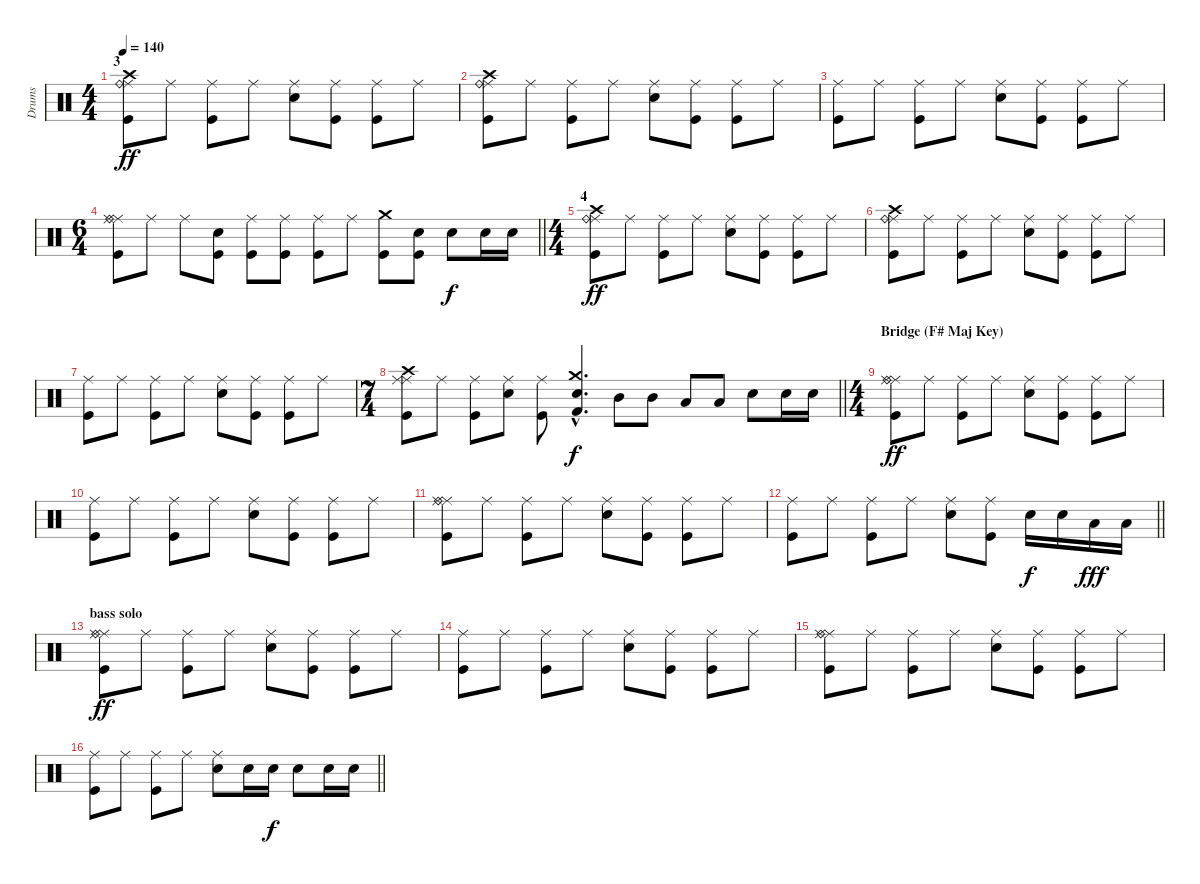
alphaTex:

\track ("Drums" "Drums") {instrument percussion}
\staff {score}
\articulation defaults
\ts (4 4)
\section ("" "3")
\tempo 140
\clef neutral
\ks c
("Kick (hit)" "Crash high (hit)" "Ride (middle)" "Ride (bell)").8{dy ff} "Ride (middle)".8 ("Kick (hit)" "Ride (middle)").8 "Ride (middle)".8 ("Snare (hit) 2" "Ride (middle)").8 ("Kick (hit)" "Ride (middle)").8 ("Kick (hit)" "Ride (middle)").8 "Ride (middle)".8 |
("Kick (hit)" "Crash high (hit)" "Ride (middle)" "Ride (bell)").8 "Ride (middle)".8 ("Kick (hit)" "Ride (middle)").8 "Ride (middle)".8 ("Snare (hit) 2" "Ride (middle)").8 ("Kick (hit)" "Ride (middle)").8 ("Kick (hit)" "Ride (middle)").8 "Ride (middle)".8 |
("Kick (hit)" "Ride (middle)").8 "Ride (middle)".8 ("Kick (hit)" "Ride (middle)").8 "Ride (middle)".8 ("Snare (hit) 2" "Ride (middle)").8 ("Kick (hit)" "Ride (middle)").8 ("Kick (hit)" "Ride (middle)").8 "Ride (middle)".8 |
\ts (6 4)
\barLineRight lightlight
("Kick (hit)" "Ride (middle)" "Ride (middle)" "Ride (bell)").8 "Ride (middle)".8 "Ride (middle)".8 ("Kick (hit)" "Snare (hit) 2").8 ("Kick (hit)" "Ride (middle)").8 ("Kick (hit)" "Ride (middle)").8 ("Kick (hit)" "Ride (middle)").8 "Ride (middle)".8 ("Kick (hit)" "Crash medium (hit)").8 ("Kick (hit)" "Snare (hit) 2").8 "Snare (hit) 2".8{dy f} "Snare (hit) 2".16 "Snare (hit) 2".16 |
\ts (4 4)
\section ("" "4")
("Kick (hit)" "Crash high (hit)" "Ride (middle)" "Ride (bell)").8{dy ff} "Ride (middle)".8 ("Kick (hit)" "Ride (middle)").8 "Ride (middle)".8 ("Snare (hit) 2" "Ride (middle)").8 ("Kick (hit)" "Ride (middle)").8 ("Kick (hit)" "Ride (middle)").8 "Ride (middle)".8 |
("Kick (hit)" "Crash high (hit)" "Ride (middle)" "Ride (bell)").8 "Ride (middle)".8 ("Kick (hit)" "Ride (middle)").8 "Ride (middle)".8 ("Snare (hit) 2" "Ride (middle)").8 ("Kick (hit)" "Ride (middle)").8 ("Kick (hit)" "Ride (middle)").8 "Ride (middle)".8 |
("Kick (hit)" "Ride (middle)").8 "Ride (middle)".8 ("Kick (hit)" "Ride (middle)").8 "Ride (middle)".8 ("Snare (hit) 2" "Ride (middle)").8 ("Kick (hit)" "Ride (middle)").8 ("Kick (hit)" "Ride (middle)").8 "Ride (middle)".8 |
\ts (7 4)
\barLineRight lightlight
("Kick (hit)" "Ride (middle)" "Ride (middle)" "Crash high (hit)").8 "Ride (middle)".8 ("Ride (middle)" "Kick (hit)").8 ("Ride (middle)" "Snare (hit) 2").8 ("Kick (hit)" "Ride (middle)").8 ("Crash medium (hit)"{hac} "Snare (hit) 2"{hac} "Kick (hit) 2"{hac}).4{d dy f} "Mid Tom (hit)".8 "Mid Tom (hit)".8 "Low Tom (hit)".8 "Low Tom (hit)".8 "Snare (hit) 2".8 "Snare (hit) 2".16 "Snare (hit) 2".16 |
\ts (4 4)
\section ("" "Bridge (F# Maj Key)")
("Kick (hit)" "Ride (middle)" "Ride (middle)" "Ride (bell)").8{dy ff} "Ride (middle)".8 ("Kick (hit)" "Ride (middle)").8 "Ride (middle)".8 ("Snare (hit) 2" "Ride (middle)").8 ("Kick (hit)" "Ride (middle)").8 ("Kick (hit)" "Ride (middle)").8 "Ride (middle)".8 |
("Kick (hit)" "Ride (middle)").8 "Ride (middle)".8 ("Kick (hit)" "Ride (middle)").8 "Ride (middle)".8 ("Snare (hit) 2" "Ride (middle)").8 ("Kick (hit)" "Ride (middle)").8 ("Kick (hit)" "Ride (middle)").8 "Ride (middle)".8 |
("Kick (hit)" "Ride (middle)" "Ride (middle)" "Ride (bell)").8 "Ride (middle)".8 ("Kick (hit)" "Ride (middle)").8 "Ride (middle)".8 ("Snare (hit) 2" "Ride (middle)").8 ("Kick (hit)" "Ride (middle)").8 ("Kick (hit)" "Ride (middle)").8 "Ride (middle)".8 |
\barLineRight lightlight
("Kick (hit)" "Ride (middle)").8 "Ride (middle)".8 ("Kick (hit)" "Ride (middle)").8 "Ride (middle)".8 ("Snare (hit) 2" "Ride (middle)").8 ("Kick (hit)" "Ride (middle)").8 "Snare (hit) 2".16{dy f} "Snare (hit) 2".16 "Low Floor Tom (hit)".16{dy fff} "Low Floor Tom (hit)".16 |
\section ("" "bass solo")
("Kick (hit)" "Ride (middle)" "Ride (middle)" "Ride (bell)").8{dy ff} "Ride (middle)".8 ("Kick (hit)" "Ride (middle)").8 "Ride (middle)".8 ("Snare (hit) 2" "Ride (middle)").8 ("Kick (hit)" "Ride (middle)").8 ("Kick (hit)" "Ride (middle)").8 "Ride (middle)".8 |
("Kick (hit)" "Ride (middle)").8 "Ride (middle)".8 ("Kick (hit)" "Ride (middle)").8 "Ride (middle)".8 ("Snare (hit) 2" "Ride (middle)").8 ("Kick (hit)" "Ride (middle)").8 ("Kick (hit)" "Ride (middle)").8 "Ride (middle)".8 |
("Kick (hit)" "Ride (middle)" "Ride (middle)" "Ride (bell)").8 "Ride (middle)".8 ("Kick (hit)" "Ride (middle)").8 "Ride (middle)".8 ("Snare (hit) 2" "Ride (middle)").8 ("Kick (hit)" "Ride (middle)").8 ("Kick (hit)" "Ride (middle)").8 "Ride (middle)".8 |
\barLineRight lightlight
("Kick (hit)" "Ride (middle)").8 "Ride (middle)".8 ("Kick (hit)" "Ride (middle)").8 "Ride (middle)".8 ("Snare (hit) 2" "Ride (middle)").8 "Snare (hit) 2".16 "Snare (hit) 2".16{dy f} "Snare (hit) 2".8 "Snare (hit) 2".16 "Snare (hit) 2".16
